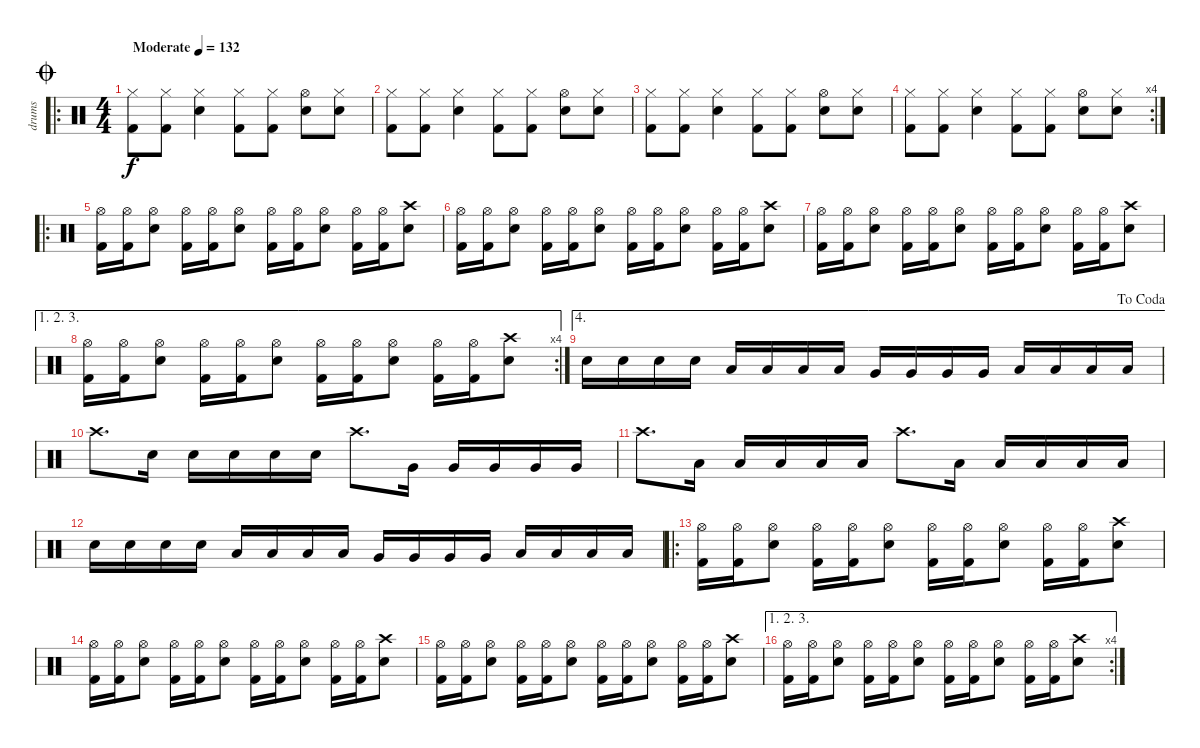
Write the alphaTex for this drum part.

\track ("drums" "drums") {instrument percussion}
\staff {score}
\articulation defaults
\ro
\ts (4 4)
\jump coda
\tempo (132 "Moderate")
\clef neutral
\ks c
("Hi-Hat (closed)" "Kick (hit) 2").8{dy f} ("Hi-Hat (closed)" "Kick (hit) 2").8 ("Hi-Hat (closed)" "Snare (hit) 2").4 ("Hi-Hat (closed)" "Kick (hit) 2").8 ("Hi-Hat (closed)" "Kick (hit) 2").8 ("Hi-Hat (open)" "Snare (hit) 2").8 ("Hi-Hat (closed)" "Snare (hit) 2").8 |
("Hi-Hat (closed)" "Kick (hit) 2").8 ("Hi-Hat (closed)" "Kick (hit) 2").8 ("Hi-Hat (closed)" "Snare (hit) 2").4 ("Hi-Hat (closed)" "Kick (hit) 2").8 ("Hi-Hat (closed)" "Kick (hit) 2").8 ("Hi-Hat (open)" "Snare (hit) 2").8 ("Hi-Hat (closed)" "Snare (hit) 2").8 |
("Hi-Hat (closed)" "Kick (hit) 2").8 ("Hi-Hat (closed)" "Kick (hit) 2").8 ("Hi-Hat (closed)" "Snare (hit) 2").4 ("Hi-Hat (closed)" "Kick (hit) 2").8 ("Hi-Hat (closed)" "Kick (hit) 2").8 ("Hi-Hat (open)" "Snare (hit) 2").8 ("Hi-Hat (closed)" "Snare (hit) 2").8 |
\rc 4
("Hi-Hat (closed)" "Kick (hit) 2").8 ("Hi-Hat (closed)" "Kick (hit) 2").8 ("Hi-Hat (closed)" "Snare (hit) 2").4 ("Hi-Hat (closed)" "Kick (hit) 2").8 ("Hi-Hat (closed)" "Kick (hit) 2").8 ("Hi-Hat (open)" "Snare (hit) 2").8 ("Hi-Hat (closed)" "Snare (hit) 2").8 |
\ro
("Hi-Hat (open)" "Kick (hit) 2").16 ("Hi-Hat (open)" "Kick (hit) 2").16 ("Hi-Hat (open)" "Snare (hit) 2").8 ("Hi-Hat (open)" "Kick (hit) 2").16 ("Hi-Hat (open)" "Kick (hit) 2").16 ("Hi-Hat (open)" "Snare (hit) 2").8 ("Hi-Hat (open)" "Kick (hit) 2").16 ("Hi-Hat (open)" "Kick (hit) 2").16 ("Hi-Hat (open)" "Snare (hit) 2").8 ("Hi-Hat (open)" "Kick (hit) 2").16 ("Hi-Hat (open)" "Kick (hit) 2").16 ("Crash high (hit)" "Snare (hit) 2").8 |
("Hi-Hat (open)" "Kick (hit) 2").16 ("Hi-Hat (open)" "Kick (hit) 2").16 ("Hi-Hat (open)" "Snare (hit) 2").8 ("Hi-Hat (open)" "Kick (hit) 2").16 ("Hi-Hat (open)" "Kick (hit) 2").16 ("Hi-Hat (open)" "Snare (hit) 2").8 ("Hi-Hat (open)" "Kick (hit) 2").16 ("Hi-Hat (open)" "Kick (hit) 2").16 ("Hi-Hat (open)" "Snare (hit) 2").8 ("Hi-Hat (open)" "Kick (hit) 2").16 ("Hi-Hat (open)" "Kick (hit) 2").16 ("Crash high (hit)" "Snare (hit) 2").8 |
("Hi-Hat (open)" "Kick (hit) 2").16 ("Hi-Hat (open)" "Kick (hit) 2").16 ("Hi-Hat (open)" "Snare (hit) 2").8 ("Hi-Hat (open)" "Kick (hit) 2").16 ("Hi-Hat (open)" "Kick (hit) 2").16 ("Hi-Hat (open)" "Snare (hit) 2").8 ("Hi-Hat (open)" "Kick (hit) 2").16 ("Hi-Hat (open)" "Kick (hit) 2").16 ("Hi-Hat (open)" "Snare (hit) 2").8 ("Hi-Hat (open)" "Kick (hit) 2").16 ("Hi-Hat (open)" "Kick (hit) 2").16 ("Crash high (hit)" "Snare (hit) 2").8 |
\ae (1 2 3)
\rc 4
("Hi-Hat (open)" "Kick (hit) 2").16 ("Hi-Hat (open)" "Kick (hit) 2").16 ("Hi-Hat (open)" "Snare (hit) 2").8 ("Hi-Hat (open)" "Kick (hit) 2").16 ("Hi-Hat (open)" "Kick (hit) 2").16 ("Hi-Hat (open)" "Snare (hit) 2").8 ("Hi-Hat (open)" "Kick (hit) 2").16 ("Hi-Hat (open)" "Kick (hit) 2").16 ("Hi-Hat (open)" "Snare (hit) 2").8 ("Hi-Hat (open)" "Kick (hit) 2").16 ("Hi-Hat (open)" "Kick (hit) 2").16 ("Crash high (hit)" "Snare (hit) 2").8 |
\ae 4
\jump dacoda "Snare (hit) 2".16 "Snare (hit) 2".16 "Snare (hit) 2".16 "Snare (hit) 2".16 "Low Floor Tom (hit)".16 "Low Floor Tom (hit)".16 "Low Floor Tom (hit)".16 "Low Floor Tom (hit)".16 "Very Low Tom (hit)".16 "Very Low Tom (hit)".16 "Very Low Tom (hit)".16 "Very Low Tom (hit)".16 "Low Tom (hit)".16 "Low Tom (hit)".16 "Low Tom (hit)".16 "Low Tom (hit)".16
|
"Crash high (hit)".8{d} "Snare (hit) 2".16 "Snare (hit) 2".16 "Snare (hit) 2".16 "Snare (hit) 2".16 "Snare (hit) 2".16 "Crash high (hit)".8{d} "Very Low Tom (hit)".16 "Very Low Tom (hit)".16 "Very Low Tom (hit)".16 "Very Low Tom (hit)".16 "Very Low Tom (hit)".16 |
"Crash high (hit)".8{d} "Low Tom (hit)".16 "Low Tom (hit)".16 "Low Tom (hit)".16 "Low Tom (hit)".16 "Low Tom (hit)".16 "Crash high (hit)".8{d} "Low Floor Tom (hit)".16 "Low Floor Tom (hit)".16 "Low Floor Tom (hit)".16 "Low Floor Tom (hit)".16 "Low Floor Tom (hit)".16 |
"Snare (hit) 2".16 "Snare (hit) 2".16 "Snare (hit) 2".16 "Snare (hit) 2".16 "Low Floor Tom (hit)".16 "Low Floor Tom (hit)".16 "Low Floor Tom (hit)".16 "Low Floor Tom (hit)".16 "Very Low Tom (hit)".16 "Very Low Tom (hit)".16 "Very Low Tom (hit)".16 "Very Low Tom (hit)".16 "Low Tom (hit)".16 "Low Tom (hit)".16 "Low Tom (hit)".16 "Low Tom (hit)".16 |
\ro
("Hi-Hat (open)" "Kick (hit) 2").16 ("Hi-Hat (open)" "Kick (hit) 2").16 ("Hi-Hat (open)" "Snare (hit) 2").8 ("Hi-Hat (open)" "Kick (hit) 2").16 ("Hi-Hat (open)" "Kick (hit) 2").16 ("Hi-Hat (open)" "Snare (hit) 2").8 ("Hi-Hat (open)" "Kick (hit) 2").16 ("Hi-Hat (open)" "Kick (hit) 2").16 ("Hi-Hat (open)" "Snare (hit) 2").8 ("Hi-Hat (open)" "Kick (hit) 2").16 ("Hi-Hat (open)" "Kick (hit) 2").16 ("Crash high (hit)" "Snare (hit) 2").8 |
("Hi-Hat (open)" "Kick (hit) 2").16 ("Hi-Hat (open)" "Kick (hit) 2").16 ("Hi-Hat (open)" "Snare (hit) 2").8 ("Hi-Hat (open)" "Kick (hit) 2").16 ("Hi-Hat (open)" "Kick (hit) 2").16 ("Hi-Hat (open)" "Snare (hit) 2").8 ("Hi-Hat (open)" "Kick (hit) 2").16 ("Hi-Hat (open)" "Kick (hit) 2").16 ("Hi-Hat (open)" "Snare (hit) 2").8 ("Hi-Hat (open)" "Kick (hit) 2").16 ("Hi-Hat (open)" "Kick (hit) 2").16 ("Crash high (hit)" "Snare (hit) 2").8 |
("Hi-Hat (open)" "Kick (hit) 2").16 ("Hi-Hat (open)" "Kick (hit) 2").16 ("Hi-Hat (open)" "Snare (hit) 2").8 ("Hi-Hat (open)" "Kick (hit) 2").16 ("Hi-Hat (open)" "Kick (hit) 2").16 ("Hi-Hat (open)" "Snare (hit) 2").8 ("Hi-Hat (open)" "Kick (hit) 2").16 ("Hi-Hat (open)" "Kick (hit) 2").16 ("Hi-Hat (open)" "Snare (hit) 2").8 ("Hi-Hat (open)" "Kick (hit) 2").16 ("Hi-Hat (open)" "Kick (hit) 2").16 ("Crash high (hit)" "Snare (hit) 2").8 |
\ae (1 2 3)
\rc 4
("Hi-Hat (open)" "Kick (hit) 2").16 ("Hi-Hat (open)" "Kick (hit) 2").16 ("Hi-Hat (open)" "Snare (hit) 2").8 ("Hi-Hat (open)" "Kick (hit) 2").16 ("Hi-Hat (open)" "Kick (hit) 2").16 ("Hi-Hat (open)" "Snare (hit) 2").8 ("Hi-Hat (open)" "Kick (hit) 2").16 ("Hi-Hat (open)" "Kick (hit) 2").16 ("Hi-Hat (open)" "Snare (hit) 2").8 ("Hi-Hat (open)" "Kick (hit) 2").16 ("Hi-Hat (open)" "Kick (hit) 2").16 ("Crash high (hit)" "Snare (hit) 2").8
